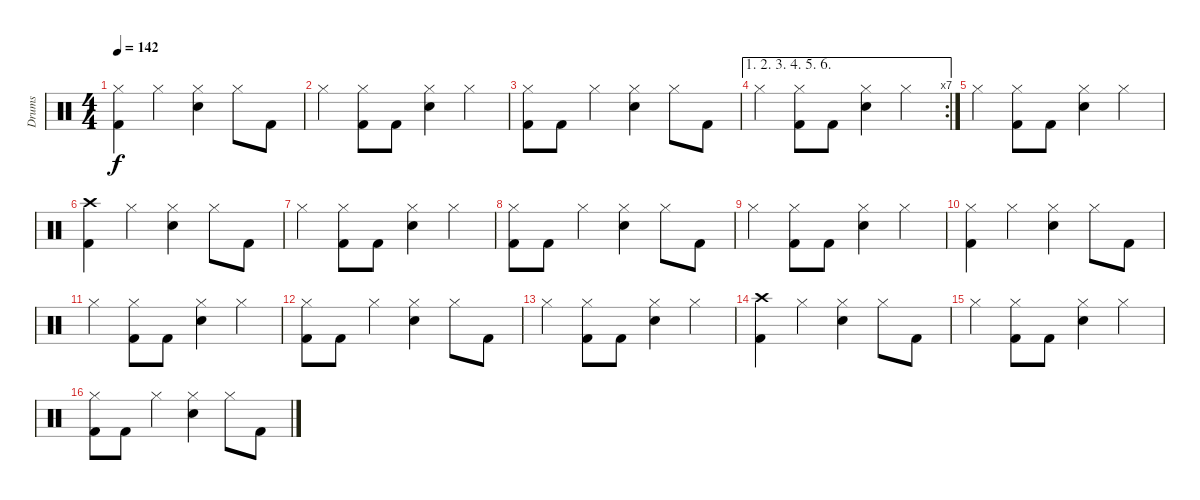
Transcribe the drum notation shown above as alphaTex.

\track ("Drums" "Drums") {instrument percussion}
\staff {score}
\articulation defaults
\ts (4 4)
\tempo 142
\clef neutral
\ks c
("Hi-Hat (closed)" "Kick (hit) 2").4{dy f} "Hi-Hat (closed)".4 ("Hi-Hat (closed)" "Electric Snare (hit)").4 "Hi-Hat (closed)".8 "Kick (hit) 2".8 |
"Hi-Hat (closed)".4 ("Hi-Hat (closed)" "Kick (hit) 2").8 "Kick (hit) 2".8 ("Hi-Hat (closed)" "Electric Snare (hit)").4 "Hi-Hat (closed)".4 |
("Hi-Hat (closed)" "Kick (hit) 2").8 "Kick (hit) 2".8 "Hi-Hat (closed)".4 ("Hi-Hat (closed)" "Electric Snare (hit)").4 "Hi-Hat (closed)".8 "Kick (hit) 2".8 |
\ae (1 2 3 4 5 6)
\rc 7 "Hi-Hat (closed)".4
("Hi-Hat (closed)" "Kick (hit) 2").8 "Kick (hit) 2".8 ("Hi-Hat (closed)" "Electric Snare (hit)").4 "Hi-Hat (closed)".4 |
"Hi-Hat (closed)".4 ("Hi-Hat (closed)" "Kick (hit) 2").8 "Kick (hit) 2".8 ("Hi-Hat (closed)" "Electric Snare (hit)").4 "Hi-Hat (closed)".4 |
("Crash high (hit)" "Kick (hit) 2").4 "Hi-Hat (closed)".4 ("Hi-Hat (closed)" "Electric Snare (hit)").4 "Hi-Hat (closed)".8 "Kick (hit) 2".8 |
"Hi-Hat (closed)".4 ("Hi-Hat (closed)" "Kick (hit) 2").8 "Kick (hit) 2".8 ("Hi-Hat (closed)" "Electric Snare (hit)").4 "Hi-Hat (closed)".4 |
("Hi-Hat (closed)" "Kick (hit) 2").8 "Kick (hit) 2".8 "Hi-Hat (closed)".4 ("Hi-Hat (closed)" "Electric Snare (hit)").4 "Hi-Hat (closed)".8 "Kick (hit) 2".8 |
"Hi-Hat (closed)".4 ("Hi-Hat (closed)" "Kick (hit) 2").8 "Kick (hit) 2".8 ("Hi-Hat (closed)" "Electric Snare (hit)").4 "Hi-Hat (closed)".4 |
("Hi-Hat (closed)" "Kick (hit) 2").4 "Hi-Hat (closed)".4 ("Hi-Hat (closed)" "Electric Snare (hit)").4 "Hi-Hat (closed)".8 "Kick (hit) 2".8 |
"Hi-Hat (closed)".4 ("Hi-Hat (closed)" "Kick (hit) 2").8 "Kick (hit) 2".8 ("Hi-Hat (closed)" "Electric Snare (hit)").4 "Hi-Hat (closed)".4 |
("Hi-Hat (closed)" "Kick (hit) 2").8 "Kick (hit) 2".8 "Hi-Hat (closed)".4 ("Hi-Hat (closed)" "Electric Snare (hit)").4 "Hi-Hat (closed)".8 "Kick (hit) 2".8 |
"Hi-Hat (closed)".4 ("Hi-Hat (closed)" "Kick (hit) 2").8 "Kick (hit) 2".8 ("Hi-Hat (closed)" "Electric Snare (hit)").4 "Hi-Hat (closed)".4 |
("Crash high (hit)" "Kick (hit) 2").4 "Hi-Hat (closed)".4 ("Hi-Hat (closed)" "Electric Snare (hit)").4 "Hi-Hat (closed)".8 "Kick (hit) 2".8 |
"Hi-Hat (closed)".4 ("Hi-Hat (closed)" "Kick (hit) 2").8 "Kick (hit) 2".8 ("Hi-Hat (closed)" "Electric Snare (hit)").4 "Hi-Hat (closed)".4 |
("Hi-Hat (closed)" "Kick (hit) 2").8 "Kick (hit) 2".8 "Hi-Hat (closed)".4 ("Hi-Hat (closed)" "Electric Snare (hit)").4 "Hi-Hat (closed)".8 "Kick (hit) 2".8
